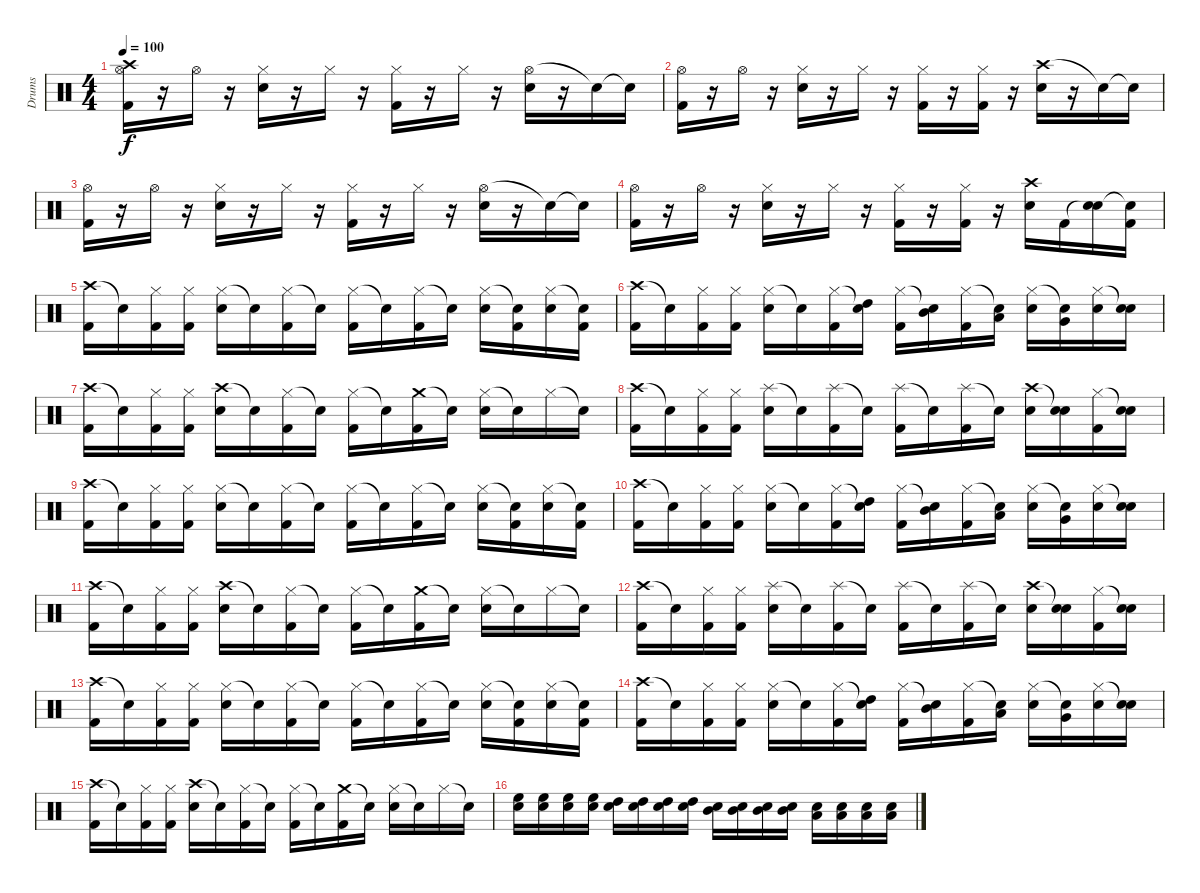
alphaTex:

\track ("Drums" "Drums") {instrument percussion}
\staff {score}
\articulation defaults
\ts (4 4)
\tempo 100
\clef neutral
\ks c
("Crash high (hit)" "Hi-Hat (open)" "Kick (hit) 2").16{dy f} r.16 "Hi-Hat (open)".16 r.16 ("Hi-Hat (closed)" "Electric Snare (hit)").16 r.16 "Hi-Hat (closed)".16 r.16 ("Hi-Hat (closed)" "Kick (hit) 2").16 r.16 "Hi-Hat (closed)".16 r.16 ("Hi-Hat (open)" "Electric Snare (hit)").16 r.16 "Snare (hit)"{t}.16 "Snare (hit)"{t}.16 |
("Hi-Hat (open)" "Kick (hit) 2").16 r.16 "Hi-Hat (open)".16 r.16 ("Hi-Hat (closed)" "Electric Snare (hit)").16 r.16 "Hi-Hat (closed)".16 r.16 ("Hi-Hat (closed)" "Kick (hit) 2").16 r.16 ("Hi-Hat (closed)" "Kick (hit) 2").16 r.16 ("Crash high (hit)" "Electric Snare (hit)").16 r.16 "Snare (hit)"{t}.16 "Snare (hit)"{t}.16 |
("Hi-Hat (open)" "Kick (hit) 2").16 r.16 "Hi-Hat (open)".16 r.16 ("Hi-Hat (closed)" "Electric Snare (hit)").16 r.16 "Hi-Hat (closed)".16 r.16 ("Hi-Hat (closed)" "Kick (hit) 2").16 r.16 "Hi-Hat (closed)".16 r.16 ("Hi-Hat (open)" "Electric Snare (hit)").16 r.16 "Snare (hit)"{t}.16 "Snare (hit)"{t}.16 |
("Hi-Hat (open)" "Kick (hit) 2").16 r.16 "Hi-Hat (open)".16 r.16 ("Hi-Hat (closed)" "Electric Snare (hit)").16 r.16 "Hi-Hat (closed)".16 r.16 ("Hi-Hat (closed)" "Kick (hit) 2").16 r.16 ("Hi-Hat (closed)" "Kick (hit) 2").16 r.16 ("Crash high (hit)" "Electric Snare (hit)").16 "Kick (hit) 2".16 ("Snare (hit)"{t} "Electric Snare (hit)").16 ("Snare (hit)"{t} "Kick (hit) 2").16 |
("Crash high (hit)" "Kick (hit) 2").16 "Snare (hit)"{t}.16 ("Hi-Hat (closed)" "Kick (hit) 2").16 ("Hi-Hat (closed)" "Kick (hit) 2").16 ("Hi-Hat (closed)" "Electric Snare (hit)").16 "Snare (hit)"{t}.16 ("Hi-Hat (closed)" "Kick (hit) 2").16 "Snare (hit)"{t}.16 ("Hi-Hat (closed)" "Kick (hit) 2").16 "Snare (hit)"{t}.16 ("Hi-Hat (closed)" "Kick (hit) 2").16 "Snare (hit)"{t}.16 ("Hi-Hat (closed)" "Electric Snare (hit)").16 ("Snare (hit)"{t} "Kick (hit) 2").16 ("Hi-Hat (closed)" "Electric Snare (hit)").16 ("Snare (hit)"{t} "Kick (hit) 2").16 |
("Crash high (hit)" "Kick (hit) 2").16 "Snare (hit)"{t}.16 ("Hi-Hat (closed)" "Kick (hit) 2").16 ("Hi-Hat (closed)" "Kick (hit) 2").16 ("Hi-Hat (closed)" "Electric Snare (hit)").16 "Snare (hit)"{t}.16 ("Hi-Hat (closed)" "Kick (hit) 2").16 ("Snare (hit)"{t} "High Tom (hit)").16 ("Hi-Hat (closed)" "Kick (hit) 2").16 ("Snare (hit)"{t} "Mid Tom (hit)").16 ("Hi-Hat (closed)" "Kick (hit) 2").16 ("Snare (hit)"{t} "Low Tom (hit)").16 ("Hi-Hat (closed)" "Electric Snare (hit)").16 ("Snare (hit)"{t} "Very Low Tom (hit)").16 ("Hi-Hat (closed)" "Electric Snare (hit)").16 ("Snare (hit)"{t} "Electric Snare (hit)").16 |
("Crash high (hit)" "Kick (hit) 2").16 "Snare (hit)"{t}.16 ("Hi-Hat (closed)" "Kick (hit) 2").16 ("Hi-Hat (closed)" "Kick (hit) 2").16 ("Crash high (hit)" "Electric Snare (hit)").16 "Snare (hit)"{t}.16 ("Hi-Hat (closed)" "Kick (hit) 2").16 "Snare (hit)"{t}.16 ("Hi-Hat (closed)" "Kick (hit) 2").16 "Snare (hit)"{t}.16 ("Crash medium (hit)" "Kick (hit) 2").16 "Snare (hit)"{t}.16 ("Hi-Hat (closed)" "Electric Snare (hit)").16 "Snare (hit)"{t}.16 "Hi-Hat (closed)".16 "Snare (hit)"{t}.16 |
("Crash high (hit)" "Kick (hit) 2").16 "Snare (hit)"{t}.16 ("Hi-Hat (closed)" "Kick (hit) 2").16 ("Hi-Hat (closed)" "Kick (hit) 2").16 ("Splash (hit)" "Electric Snare (hit)").16 "Snare (hit)"{t}.16 ("Splash (hit)" "Kick (hit) 2").16 "Snare (hit)"{t}.16 ("Splash (hit)" "Kick (hit) 2").16 "Snare (hit)"{t}.16 ("Splash (hit)" "Kick (hit) 2").16 "Snare (hit)"{t}.16 ("Crash high (hit)" "Electric Snare (hit)").16 ("Snare (hit)"{t} "Electric Snare (hit)").16 ("Hi-Hat (closed)" "Kick (hit) 2").16 ("Snare (hit)"{t} "Electric Snare (hit)").16 |
("Crash high (hit)" "Kick (hit) 2").16 "Snare (hit)"{t}.16 ("Hi-Hat (closed)" "Kick (hit) 2").16 ("Hi-Hat (closed)" "Kick (hit) 2").16 ("Hi-Hat (closed)" "Electric Snare (hit)").16 "Snare (hit)"{t}.16 ("Hi-Hat (closed)" "Kick (hit) 2").16 "Snare (hit)"{t}.16 ("Hi-Hat (closed)" "Kick (hit) 2").16 "Snare (hit)"{t}.16 ("Hi-Hat (closed)" "Kick (hit) 2").16 "Snare (hit)"{t}.16 ("Hi-Hat (closed)" "Electric Snare (hit)").16 ("Snare (hit)"{t} "Kick (hit) 2").16 ("Hi-Hat (closed)" "Electric Snare (hit)").16 ("Snare (hit)"{t} "Kick (hit) 2").16 |
("Crash high (hit)" "Kick (hit) 2").16 "Snare (hit)"{t}.16 ("Hi-Hat (closed)" "Kick (hit) 2").16 ("Hi-Hat (closed)" "Kick (hit) 2").16 ("Hi-Hat (closed)" "Electric Snare (hit)").16 "Snare (hit)"{t}.16 ("Hi-Hat (closed)" "Kick (hit) 2").16 ("Snare (hit)"{t} "High Tom (hit)").16 ("Hi-Hat (closed)" "Kick (hit) 2").16 ("Snare (hit)"{t} "Mid Tom (hit)").16 ("Hi-Hat (closed)" "Kick (hit) 2").16 ("Snare (hit)"{t} "Low Tom (hit)").16 ("Hi-Hat (closed)" "Electric Snare (hit)").16 ("Snare (hit)"{t} "Very Low Tom (hit)").16 ("Hi-Hat (closed)" "Electric Snare (hit)").16 ("Snare (hit)"{t} "Electric Snare (hit)").16 |
("Crash high (hit)" "Kick (hit) 2").16 "Snare (hit)"{t}.16 ("Hi-Hat (closed)" "Kick (hit) 2").16 ("Hi-Hat (closed)" "Kick (hit) 2").16 ("Crash high (hit)" "Electric Snare (hit)").16 "Snare (hit)"{t}.16 ("Hi-Hat (closed)" "Kick (hit) 2").16 "Snare (hit)"{t}.16 ("Hi-Hat (closed)" "Kick (hit) 2").16 "Snare (hit)"{t}.16 ("Crash medium (hit)" "Kick (hit) 2").16 "Snare (hit)"{t}.16 ("Hi-Hat (closed)" "Electric Snare (hit)").16 "Snare (hit)"{t}.16 "Hi-Hat (closed)".16 "Snare (hit)"{t}.16 |
("Crash high (hit)" "Kick (hit) 2").16 "Snare (hit)"{t}.16 ("Hi-Hat (closed)" "Kick (hit) 2").16 ("Hi-Hat (closed)" "Kick (hit) 2").16 ("Splash (hit)" "Electric Snare (hit)").16 "Snare (hit)"{t}.16 ("Splash (hit)" "Kick (hit) 2").16 "Snare (hit)"{t}.16 ("Splash (hit)" "Kick (hit) 2").16 "Snare (hit)"{t}.16 ("Splash (hit)" "Kick (hit) 2").16 "Snare (hit)"{t}.16 ("Crash high (hit)" "Electric Snare (hit)").16 ("Snare (hit)"{t} "Electric Snare (hit)").16 ("Hi-Hat (closed)" "Kick (hit) 2").16 ("Snare (hit)"{t} "Electric Snare (hit)").16 |
("Crash high (hit)" "Kick (hit) 2").16 "Snare (hit)"{t}.16 ("Hi-Hat (closed)" "Kick (hit) 2").16 ("Hi-Hat (closed)" "Kick (hit) 2").16 ("Hi-Hat (closed)" "Electric Snare (hit)").16 "Snare (hit)"{t}.16 ("Hi-Hat (closed)" "Kick (hit) 2").16 "Snare (hit)"{t}.16 ("Hi-Hat (closed)" "Kick (hit) 2").16 "Snare (hit)"{t}.16 ("Hi-Hat (closed)" "Kick (hit) 2").16 "Snare (hit)"{t}.16 ("Hi-Hat (closed)" "Electric Snare (hit)").16 ("Snare (hit)"{t} "Kick (hit) 2").16 ("Hi-Hat (closed)" "Electric Snare (hit)").16 ("Snare (hit)"{t} "Kick (hit) 2").16 |
("Crash high (hit)" "Kick (hit) 2").16 "Snare (hit)"{t}.16 ("Hi-Hat (closed)" "Kick (hit) 2").16 ("Hi-Hat (closed)" "Kick (hit) 2").16 ("Hi-Hat (closed)" "Electric Snare (hit)").16 "Snare (hit)"{t}.16 ("Hi-Hat (closed)" "Kick (hit) 2").16 ("Snare (hit)"{t} "High Tom (hit)").16 ("Hi-Hat (closed)" "Kick (hit) 2").16 ("Snare (hit)"{t} "Mid Tom (hit)").16 ("Hi-Hat (closed)" "Kick (hit) 2").16 ("Snare (hit)"{t} "Low Tom (hit)").16 ("Hi-Hat (closed)" "Electric Snare (hit)").16 ("Snare (hit)"{t} "Very Low Tom (hit)").16 ("Hi-Hat (closed)" "Electric Snare (hit)").16 ("Snare (hit)"{t} "Electric Snare (hit)").16 |
("Crash high (hit)" "Kick (hit) 2").16 "Snare (hit)"{t}.16 ("Hi-Hat (closed)" "Kick (hit) 2").16 ("Hi-Hat (closed)" "Kick (hit) 2").16 ("Crash high (hit)" "Electric Snare (hit)").16 "Snare (hit)"{t}.16 ("Hi-Hat (closed)" "Kick (hit) 2").16 "Snare (hit)"{t}.16 ("Hi-Hat (closed)" "Kick (hit) 2").16 "Snare (hit)"{t}.16 ("Crash medium (hit)" "Kick (hit) 2").16 "Snare (hit)"{t}.16 ("Hi-Hat (closed)" "Electric Snare (hit)").16 "Snare (hit)"{t}.16 "Hi-Hat (closed)".16 "Snare (hit)"{t}.16 |
("High Floor Tom (hit)" "Electric Snare (hit)").16 ("High Floor Tom (hit)" "Electric Snare (hit)").16 ("High Floor Tom (hit)" "Electric Snare (hit)").16 ("High Floor Tom (hit)" "Electric Snare (hit)").16 ("High Tom (hit)" "Electric Snare (hit)").16 ("High Tom (hit)" "Electric Snare (hit)").16 ("High Tom (hit)" "Electric Snare (hit)").16 ("High Tom (hit)" "Electric Snare (hit)").16 ("Mid Tom (hit)" "Electric Snare (hit)").16 ("Mid Tom (hit)" "Electric Snare (hit)").16 ("Mid Tom (hit)" "Electric Snare (hit)").16 ("Mid Tom (hit)" "Electric Snare (hit)").16 ("Low Tom (hit)" "Electric Snare (hit)").16 ("Low Tom (hit)" "Electric Snare (hit)").16 ("Low Tom (hit)" "Electric Snare (hit)").16 ("Low Tom (hit)" "Electric Snare (hit)").16
